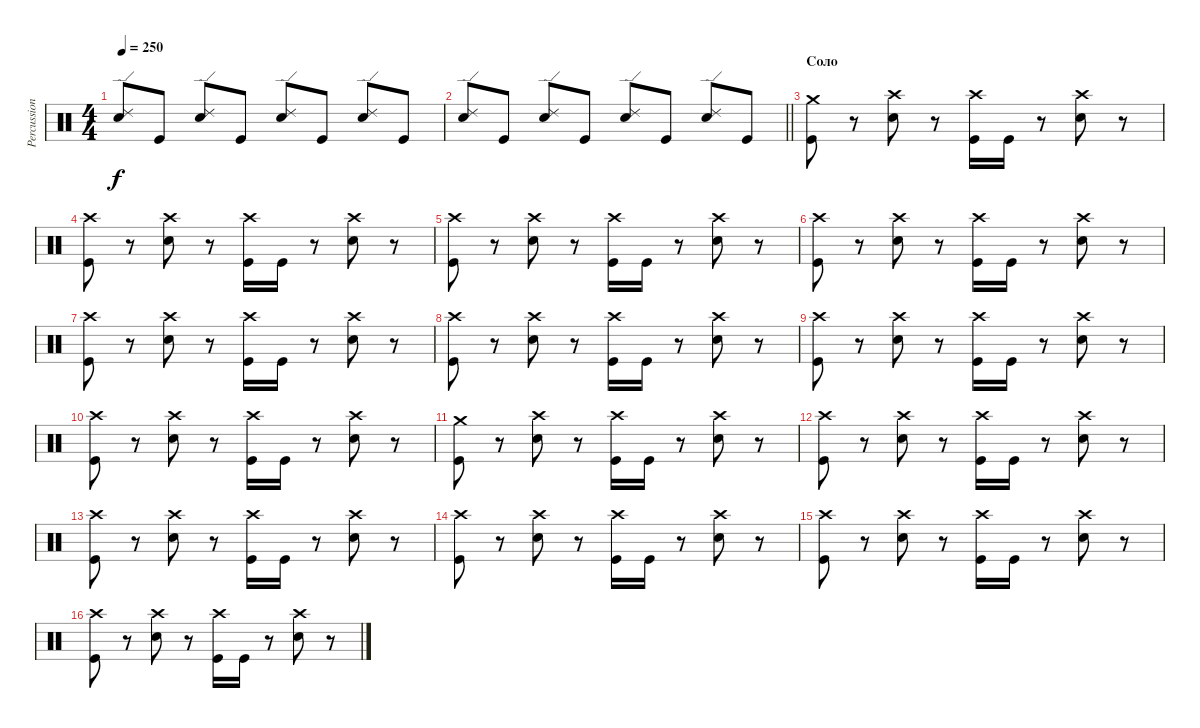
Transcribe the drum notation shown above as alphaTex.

\track ("Percussion" "Percussion") {instrument percussion}
\staff {score}
\articulation defaults
\ts (4 4)
\tempo 250
\clef neutral
\ks c
("Ride (edge) 2" "Electric Snare (hit)").8{dy f} "Kick (hit)".8 ("Ride (edge) 2" "Electric Snare (hit)").8 "Kick (hit)".8 ("Ride (edge) 2" "Electric Snare (hit)").8 "Kick (hit)".8 ("Ride (edge) 2" "Electric Snare (hit)").8 "Kick (hit)".8 |
\barLineRight lightlight
("Ride (edge) 2" "Electric Snare (hit)").8 "Kick (hit)".8 ("Ride (edge) 2" "Electric Snare (hit)").8 "Kick (hit)".8 ("Ride (edge) 2" "Electric Snare (hit)").8 "Kick (hit)".8 ("Ride (edge) 2" "Electric Snare (hit)").8 "Kick (hit)".8 |
\section ("" "Соло")
("Crash medium (hit)" "Kick (hit)").8 r.8 ("Crash high (hit)" "Electric Snare (hit)").8 r.8 ("Crash high (hit)" "Kick (hit)").16 "Kick (hit)".16 r.8 ("Crash high (hit)" "Electric Snare (hit)").8 r.8 |
("Crash high (hit)" "Kick (hit)").8 r.8 ("Crash high (hit)" "Electric Snare (hit)").8 r.8 ("Crash high (hit)" "Kick (hit)").16 "Kick (hit)".16 r.8 ("Crash high (hit)" "Electric Snare (hit)").8 r.8 |
("Crash high (hit)" "Kick (hit)").8 r.8 ("Crash high (hit)" "Electric Snare (hit)").8 r.8 ("Crash high (hit)" "Kick (hit)").16 "Kick (hit)".16 r.8 ("Crash high (hit)" "Electric Snare (hit)").8 r.8 |
("Crash high (hit)" "Kick (hit)").8 r.8 ("Crash high (hit)" "Electric Snare (hit)").8 r.8 ("Crash high (hit)" "Kick (hit)").16 "Kick (hit)".16 r.8 ("Crash high (hit)" "Electric Snare (hit)").8 r.8 |
("Crash high (hit)" "Kick (hit)").8 r.8 ("Crash high (hit)" "Electric Snare (hit)").8 r.8 ("Crash high (hit)" "Kick (hit)").16 "Kick (hit)".16 r.8 ("Crash high (hit)" "Electric Snare (hit)").8 r.8 |
("Crash high (hit)" "Kick (hit)").8 r.8 ("Crash high (hit)" "Electric Snare (hit)").8 r.8 ("Crash high (hit)" "Kick (hit)").16 "Kick (hit)".16 r.8 ("Crash high (hit)" "Electric Snare (hit)").8 r.8 |
("Crash high (hit)" "Kick (hit)").8 r.8 ("Crash high (hit)" "Electric Snare (hit)").8 r.8 ("Crash high (hit)" "Kick (hit)").16 "Kick (hit)".16 r.8 ("Crash high (hit)" "Electric Snare (hit)").8 r.8 |
("Crash high (hit)" "Kick (hit)").8 r.8 ("Crash high (hit)" "Electric Snare (hit)").8 r.8 ("Crash high (hit)" "Kick (hit)").16 "Kick (hit)".16 r.8 ("Crash high (hit)" "Electric Snare (hit)").8 r.8 |
("Crash medium (hit)" "Kick (hit)").8 r.8 ("Crash high (hit)" "Electric Snare (hit)").8 r.8 ("Crash high (hit)" "Kick (hit)").16 "Kick (hit)".16 r.8 ("Crash high (hit)" "Electric Snare (hit)").8 r.8 |
("Crash high (hit)" "Kick (hit)").8 r.8 ("Crash high (hit)" "Electric Snare (hit)").8 r.8 ("Crash high (hit)" "Kick (hit)").16 "Kick (hit)".16 r.8 ("Crash high (hit)" "Electric Snare (hit)").8 r.8 |
("Crash high (hit)" "Kick (hit)").8 r.8 ("Crash high (hit)" "Electric Snare (hit)").8 r.8 ("Crash high (hit)" "Kick (hit)").16 "Kick (hit)".16 r.8 ("Crash high (hit)" "Electric Snare (hit)").8 r.8 |
("Crash high (hit)" "Kick (hit)").8 r.8 ("Crash high (hit)" "Electric Snare (hit)").8 r.8 ("Crash high (hit)" "Kick (hit)").16 "Kick (hit)".16 r.8 ("Crash high (hit)" "Electric Snare (hit)").8 r.8 |
("Crash high (hit)" "Kick (hit)").8 r.8 ("Crash high (hit)" "Electric Snare (hit)").8 r.8 ("Crash high (hit)" "Kick (hit)").16 "Kick (hit)".16 r.8 ("Crash high (hit)" "Electric Snare (hit)").8 r.8 |
("Crash high (hit)" "Kick (hit)").8 r.8 ("Crash high (hit)" "Electric Snare (hit)").8 r.8 ("Crash high (hit)" "Kick (hit)").16 "Kick (hit)".16 r.8 ("Crash high (hit)" "Electric Snare (hit)").8 r.8
